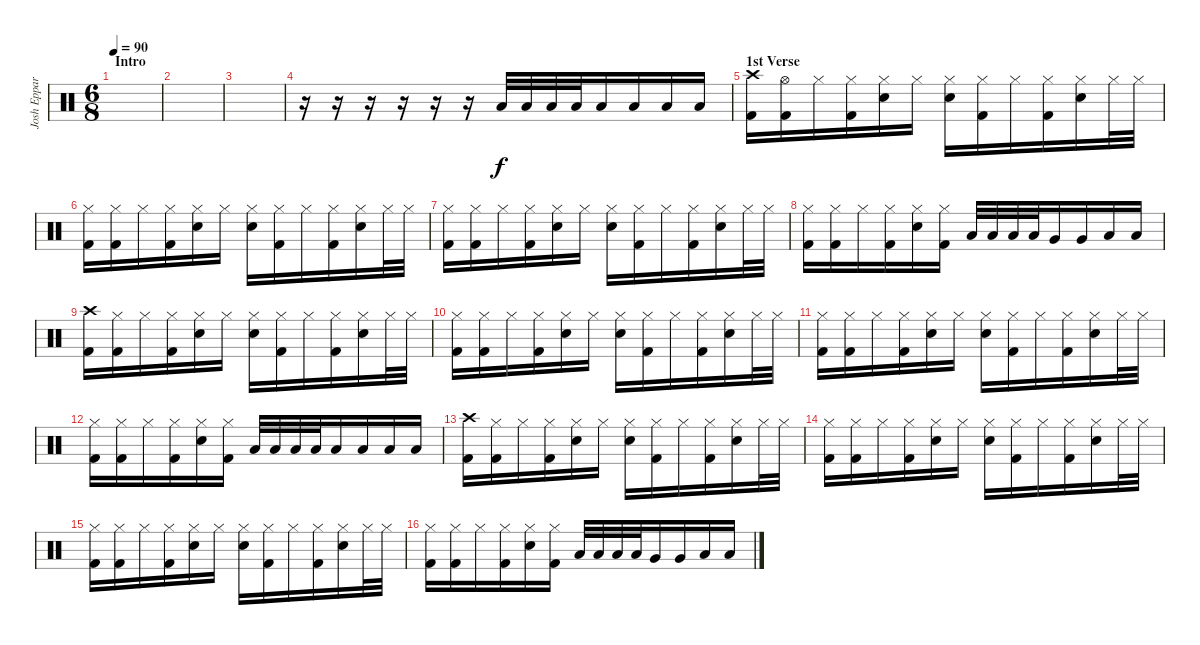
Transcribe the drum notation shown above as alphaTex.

\track ("Josh Eppard" "Josh Eppar") {instrument percussion}
\staff {score}
\articulation defaults
\ts (6 8)
\section ("" "Intro")
\tempo 90
\clef neutral
\ks c
|
|
|
r.16 r.16 r.16 r.16 r.16 r.16 "Low Floor Tom (hit)".32 "Low Floor Tom (hit)".32 "Low Floor Tom (hit)".32 "Low Floor Tom (hit)".32 "Low Floor Tom (hit)".16 "Low Floor Tom (hit)".16 "Low Floor Tom (hit)".16 "Low Floor Tom (hit)".16 |
\section ("" "1st Verse")
("Crash high (hit)" "Kick (hit) 2").16 ("Hi-Hat (open)" "Kick (hit) 2").16 "Hi-Hat (closed)".16 ("Hi-Hat (closed)" "Kick (hit) 2").16 ("Hi-Hat (closed)" "Electric Snare (hit)").16 "Hi-Hat (closed)".16 ("Hi-Hat (closed)" "Electric Snare (hit)").16 ("Hi-Hat (closed)" "Kick (hit) 2").16 "Hi-Hat (closed)".16 ("Hi-Hat (closed)" "Kick (hit) 2").16 ("Hi-Hat (closed)" "Electric Snare (hit)").16 "Hi-Hat (closed)".32 "Hi-Hat (closed)".32 |
("Hi-Hat (closed)" "Kick (hit) 2").16 ("Hi-Hat (closed)" "Kick (hit) 2").16 "Hi-Hat (closed)".16 ("Hi-Hat (closed)" "Kick (hit) 2").16 ("Hi-Hat (closed)" "Electric Snare (hit)").16 "Hi-Hat (closed)".16 ("Hi-Hat (closed)" "Electric Snare (hit)").16 ("Hi-Hat (closed)" "Kick (hit) 2").16 "Hi-Hat (closed)".16 ("Hi-Hat (closed)" "Kick (hit) 2").16 ("Hi-Hat (closed)" "Electric Snare (hit)").16 "Hi-Hat (closed)".32 "Hi-Hat (closed)".32 |
("Hi-Hat (closed)" "Kick (hit) 2").16 ("Hi-Hat (closed)" "Kick (hit) 2").16 "Hi-Hat (closed)".16 ("Hi-Hat (closed)" "Kick (hit) 2").16 ("Hi-Hat (closed)" "Electric Snare (hit)").16 "Hi-Hat (closed)".16 ("Hi-Hat (closed)" "Electric Snare (hit)").16 ("Hi-Hat (closed)" "Kick (hit) 2").16 "Hi-Hat (closed)".16 ("Hi-Hat (closed)" "Kick (hit) 2").16 ("Hi-Hat (closed)" "Electric Snare (hit)").16 "Hi-Hat (closed)".32 "Hi-Hat (closed)".32 |
("Hi-Hat (closed)" "Kick (hit) 2").16 ("Hi-Hat (closed)" "Kick (hit) 2").16 "Hi-Hat (closed)".16 ("Hi-Hat (closed)" "Kick (hit) 2").16 ("Hi-Hat (closed)" "Electric Snare (hit)").16 ("Hi-Hat (closed)" "Kick (hit) 2").16 "Low Tom (hit)".32 "Low Tom (hit)".32 "Low Tom (hit)".32 "Low Tom (hit)".32 "Very Low Tom (hit)".16 "Very Low Tom (hit)".16 "Low Floor Tom (hit)".16 "Low Floor Tom (hit)".16 |
("Crash high (hit)" "Kick (hit) 2").16 ("Hi-Hat (closed)" "Kick (hit) 2").16 "Hi-Hat (closed)".16 ("Hi-Hat (closed)" "Kick (hit) 2").16 ("Hi-Hat (closed)" "Electric Snare (hit)").16 "Hi-Hat (closed)".16 ("Hi-Hat (closed)" "Electric Snare (hit)").16 ("Hi-Hat (closed)" "Kick (hit) 2").16 "Hi-Hat (closed)".16 ("Hi-Hat (closed)" "Kick (hit) 2").16 ("Hi-Hat (closed)" "Electric Snare (hit)").16 "Hi-Hat (closed)".32 "Hi-Hat (closed)".32 |
("Hi-Hat (closed)" "Kick (hit) 2").16 ("Hi-Hat (closed)" "Kick (hit) 2").16 "Hi-Hat (closed)".16 ("Hi-Hat (closed)" "Kick (hit) 2").16 ("Hi-Hat (closed)" "Electric Snare (hit)").16 "Hi-Hat (closed)".16 ("Hi-Hat (closed)" "Electric Snare (hit)").16 ("Hi-Hat (closed)" "Kick (hit) 2").16 "Hi-Hat (closed)".16 ("Hi-Hat (closed)" "Kick (hit) 2").16 ("Hi-Hat (closed)" "Electric Snare (hit)").16 "Hi-Hat (closed)".32 "Hi-Hat (closed)".32 |
("Hi-Hat (closed)" "Kick (hit) 2").16 ("Hi-Hat (closed)" "Kick (hit) 2").16 "Hi-Hat (closed)".16 ("Hi-Hat (closed)" "Kick (hit) 2").16 ("Hi-Hat (closed)" "Electric Snare (hit)").16 "Hi-Hat (closed)".16 ("Hi-Hat (closed)" "Electric Snare (hit)").16 ("Hi-Hat (closed)" "Kick (hit) 2").16 "Hi-Hat (closed)".16 ("Hi-Hat (closed)" "Kick (hit) 2").16 ("Hi-Hat (closed)" "Electric Snare (hit)").16 "Hi-Hat (closed)".32 "Hi-Hat (closed)".32 |
("Hi-Hat (closed)" "Kick (hit) 2").16 ("Hi-Hat (closed)" "Kick (hit) 2").16 "Hi-Hat (closed)".16 ("Hi-Hat (closed)" "Kick (hit) 2").16 ("Hi-Hat (closed)" "Electric Snare (hit)").16 ("Hi-Hat (closed)" "Kick (hit) 2").16 "Low Floor Tom (hit)".32 "Low Floor Tom (hit)".32 "Low Floor Tom (hit)".32 "Low Floor Tom (hit)".32 "Low Floor Tom (hit)".16 "Low Floor Tom (hit)".16 "Low Floor Tom (hit)".16 "Low Floor Tom (hit)".16 |
("Crash high (hit)" "Kick (hit) 2").16 ("Hi-Hat (closed)" "Kick (hit) 2").16 "Hi-Hat (closed)".16 ("Hi-Hat (closed)" "Kick (hit) 2").16 ("Hi-Hat (closed)" "Electric Snare (hit)").16 "Hi-Hat (closed)".16 ("Hi-Hat (closed)" "Electric Snare (hit)").16 ("Hi-Hat (closed)" "Kick (hit) 2").16 "Hi-Hat (closed)".16 ("Hi-Hat (closed)" "Kick (hit) 2").16 ("Hi-Hat (closed)" "Electric Snare (hit)").16 "Hi-Hat (closed)".32 "Hi-Hat (closed)".32 |
("Hi-Hat (closed)" "Kick (hit) 2").16 ("Hi-Hat (closed)" "Kick (hit) 2").16 "Hi-Hat (closed)".16 ("Hi-Hat (closed)" "Kick (hit) 2").16 ("Hi-Hat (closed)" "Electric Snare (hit)").16 "Hi-Hat (closed)".16 ("Hi-Hat (closed)" "Electric Snare (hit)").16 ("Hi-Hat (closed)" "Kick (hit) 2").16 "Hi-Hat (closed)".16 ("Hi-Hat (closed)" "Kick (hit) 2").16 ("Hi-Hat (closed)" "Electric Snare (hit)").16 "Hi-Hat (closed)".32 "Hi-Hat (closed)".32 |
("Hi-Hat (closed)" "Kick (hit) 2").16 ("Hi-Hat (closed)" "Kick (hit) 2").16 "Hi-Hat (closed)".16 ("Hi-Hat (closed)" "Kick (hit) 2").16 ("Hi-Hat (closed)" "Electric Snare (hit)").16 "Hi-Hat (closed)".16 ("Hi-Hat (closed)" "Electric Snare (hit)").16 ("Hi-Hat (closed)" "Kick (hit) 2").16 "Hi-Hat (closed)".16 ("Hi-Hat (closed)" "Kick (hit) 2").16 ("Hi-Hat (closed)" "Electric Snare (hit)").16 "Hi-Hat (closed)".32 "Hi-Hat (closed)".32 |
("Hi-Hat (closed)" "Kick (hit) 2").16 ("Hi-Hat (closed)" "Kick (hit) 2").16 "Hi-Hat (closed)".16 ("Hi-Hat (closed)" "Kick (hit) 2").16 ("Hi-Hat (closed)" "Electric Snare (hit)").16 ("Hi-Hat (closed)" "Kick (hit) 2").16 "Low Tom (hit)".32 "Low Tom (hit)".32 "Low Tom (hit)".32 "Low Tom (hit)".32 "Very Low Tom (hit)".16 "Very Low Tom (hit)".16 "Low Floor Tom (hit)".16 "Low Floor Tom (hit)".16
